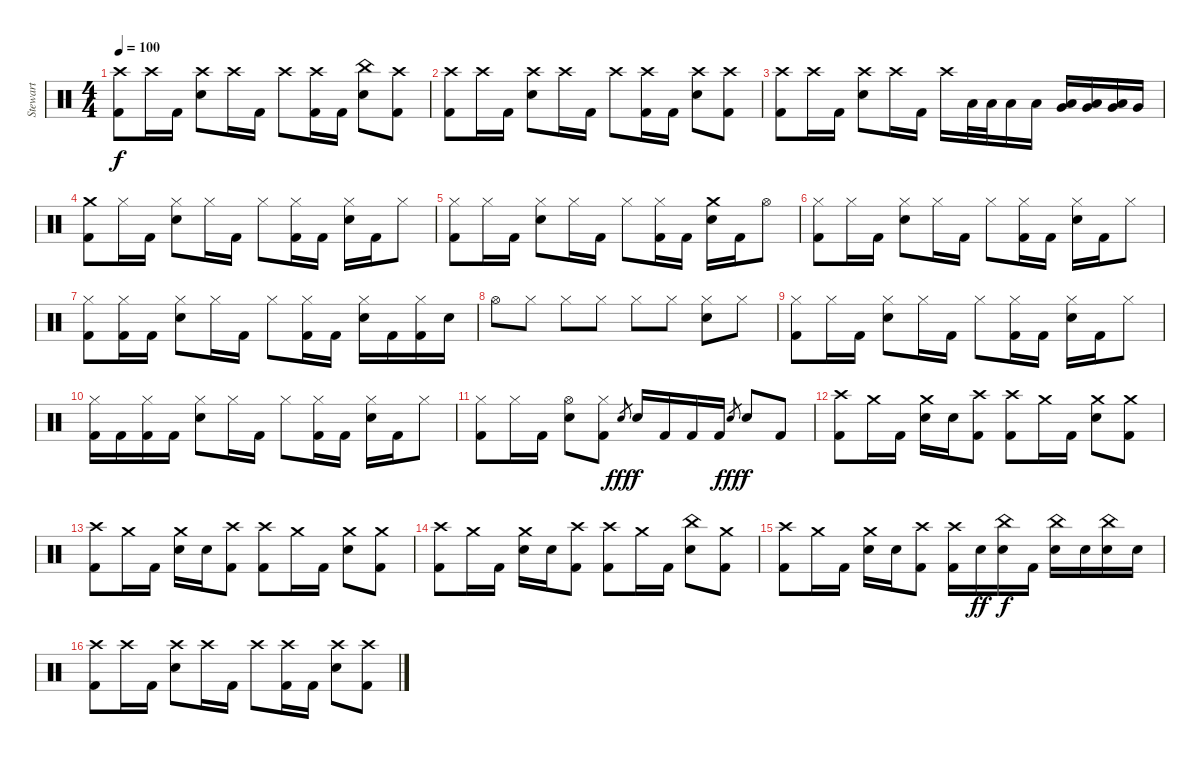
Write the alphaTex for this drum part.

\track ("Stewart" "Stewart") {instrument percussion}
\staff {score}
\articulation defaults
\ts (4 4)
\tempo 100
\clef neutral
\ks c
("Crash high (hit)" "Kick (hit) 2").8{dy f} "Crash high (hit)".16 "Kick (hit) 2".16 ("Crash high (hit)" "Electric Snare (hit)").8 "Crash high (hit)".16 "Kick (hit) 2".16 "Crash high (hit)".8 ("Crash high (hit)" "Kick (hit) 2").16 "Kick (hit) 2".16 ("China (hit)" "Electric Snare (hit)").8 ("Crash high (hit)" "Kick (hit) 2").8 |
("Crash high (hit)" "Kick (hit) 2").8 "Crash high (hit)".16 "Kick (hit) 2".16 ("Crash high (hit)" "Electric Snare (hit)").8 "Crash high (hit)".16 "Kick (hit) 2".16 "Crash high (hit)".8 ("Crash high (hit)" "Kick (hit) 2").16 "Kick (hit) 2".16 ("Crash high (hit)" "Electric Snare (hit)").8 ("Crash high (hit)" "Kick (hit) 2").8 |
("Crash high (hit)" "Kick (hit) 2").8 "Crash high (hit)".16 "Kick (hit) 2".16 ("Crash high (hit)" "Electric Snare (hit)").8 "Crash high (hit)".16 "Kick (hit) 2".16 "Crash high (hit)".16 "Low Tom (hit)".32 "Low Tom (hit)".32 "Low Tom (hit)".16 "Low Tom (hit)".16 ("Low Tom (hit)" "Very Low Tom (hit)").16 ("Low Tom (hit)" "Very Low Tom (hit)").16 ("Low Tom (hit)" "Very Low Tom (hit)").16 "Very Low Tom (hit)".16 |
("Crash medium (hit)" "Kick (hit) 2").8 "Hi-Hat (closed)".16 "Kick (hit) 2".16 ("Hi-Hat (closed)" "Electric Snare (hit)").8 "Hi-Hat (closed)".16 "Kick (hit) 2".16 "Hi-Hat (closed)".8 ("Hi-Hat (closed)" "Kick (hit) 2").16 "Kick (hit) 2".16 ("Hi-Hat (closed)" "Electric Snare (hit)").16 "Kick (hit) 2".16 "Hi-Hat (closed)".8 |
("Hi-Hat (closed)" "Kick (hit) 2").8 "Hi-Hat (closed)".16 "Kick (hit) 2".16 ("Hi-Hat (closed)" "Electric Snare (hit)").8 "Hi-Hat (closed)".16 "Kick (hit) 2".16 "Hi-Hat (closed)".8 ("Hi-Hat (closed)" "Kick (hit) 2").16 "Kick (hit) 2".16 ("Crash medium (hit)" "Electric Snare (hit)").16 "Kick (hit) 2".16 "Hi-Hat (open)".8 |
("Hi-Hat (closed)" "Kick (hit) 2").8 "Hi-Hat (closed)".16 "Kick (hit) 2".16 ("Hi-Hat (closed)" "Electric Snare (hit)").8 "Hi-Hat (closed)".16 "Kick (hit) 2".16 "Hi-Hat (closed)".8 ("Hi-Hat (closed)" "Kick (hit) 2").16 "Kick (hit) 2".16 ("Hi-Hat (closed)" "Electric Snare (hit)").16 "Kick (hit) 2".16 "Hi-Hat (closed)".8 |
("Hi-Hat (closed)" "Kick (hit) 2").8 ("Hi-Hat (closed)" "Kick (hit) 2").16 "Kick (hit) 2".16 ("Hi-Hat (closed)" "Electric Snare (hit)").8 "Hi-Hat (closed)".16 "Kick (hit) 2".16 "Hi-Hat (closed)".8 ("Hi-Hat (closed)" "Kick (hit) 2").16 "Kick (hit) 2".16 ("Hi-Hat (closed)" "Electric Snare (hit)").16 "Kick (hit) 2".16 ("Hi-Hat (closed)" "Kick (hit) 2").16 "Electric Snare (hit)".16 |
"Hi-Hat (open)".8 "Hi-Hat (closed)".8 "Hi-Hat (closed)".8 "Hi-Hat (closed)".8 "Hi-Hat (closed)".8 "Hi-Hat (closed)".8 ("Hi-Hat (closed)" "Electric Snare (hit)").8 "Hi-Hat (closed)".8 |
("Hi-Hat (closed)" "Kick (hit) 2").8 "Hi-Hat (closed)".16 "Kick (hit) 2".16 ("Hi-Hat (closed)" "Electric Snare (hit)").8 "Hi-Hat (closed)".16 "Kick (hit) 2".16 "Hi-Hat (closed)".8 ("Hi-Hat (closed)" "Kick (hit) 2").16 "Kick (hit) 2".16 ("Hi-Hat (closed)" "Electric Snare (hit)").16 "Kick (hit) 2".16 "Hi-Hat (closed)".8 |
("Hi-Hat (closed)" "Kick (hit) 2").16 "Kick (hit) 2".16 ("Hi-Hat (closed)" "Kick (hit) 2").16 "Kick (hit) 2".16 ("Hi-Hat (closed)" "Electric Snare (hit)").8 "Hi-Hat (closed)".16 "Kick (hit) 2".16 "Hi-Hat (closed)".8 ("Hi-Hat (closed)" "Kick (hit) 2").16 "Kick (hit) 2".16 ("Hi-Hat (closed)" "Electric Snare (hit)").16 "Kick (hit) 2".16 "Hi-Hat (closed)".8 |
("Hi-Hat (closed)" "Kick (hit) 2").8 "Hi-Hat (closed)".16 "Kick (hit) 2".16 ("Hi-Hat (open)" "Electric Snare (hit)").8 ("Hi-Hat (closed)" "Kick (hit) 2").8 "Electric Snare (hit)".8{gr dy fff} "Electric Snare (hit)".16{dy f} "Kick (hit) 2".16 "Kick (hit) 2".16 "Kick (hit) 2".16 "Electric Snare (hit)".8{gr dy fff} "Electric Snare (hit)".8{dy f} "Kick (hit) 2".8 |
("Crash high (hit)" "Kick (hit) 2").8 "Crash medium (hit)".16 "Kick (hit) 2".16 ("Crash medium (hit)" "Electric Snare (hit)").16 "Electric Snare (hit)".16 ("Crash high (hit)" "Kick (hit) 2").8 ("Crash high (hit)" "Kick (hit) 2").8 "Crash medium (hit)".16 "Kick (hit) 2".16 ("Crash medium (hit)" "Electric Snare (hit)").8 ("Crash medium (hit)" "Kick (hit) 2").8 |
("Crash high (hit)" "Kick (hit) 2").8 "Crash medium (hit)".16 "Kick (hit) 2".16 ("Crash medium (hit)" "Electric Snare (hit)").16 "Electric Snare (hit)".16 ("Crash high (hit)" "Kick (hit) 2").8 ("Crash high (hit)" "Kick (hit) 2").8 "Crash medium (hit)".16 "Kick (hit) 2".16 ("Crash medium (hit)" "Electric Snare (hit)").8 ("Crash medium (hit)" "Kick (hit) 2").8 |
("Crash high (hit)" "Kick (hit) 2").8 "Crash medium (hit)".16 "Kick (hit) 2".16 ("Crash medium (hit)" "Electric Snare (hit)").16 "Electric Snare (hit)".16 ("Crash high (hit)" "Kick (hit) 2").8 ("Crash high (hit)" "Kick (hit) 2").8 "Crash medium (hit)".16 "Kick (hit) 2".16 ("China (hit)" "Electric Snare (hit)").8 ("Crash medium (hit)" "Kick (hit) 2").8 |
("Crash high (hit)" "Kick (hit) 2").8 "Crash medium (hit)".16 "Kick (hit) 2".16 ("Crash medium (hit)" "Electric Snare (hit)").16 "Electric Snare (hit)".16 ("Crash high (hit)" "Kick (hit) 2").8 ("Crash high (hit)" "Kick (hit) 2").16 "Electric Snare (hit)".16{dy ff} ("China (hit)" "Electric Snare (hit)").16{dy f} "Kick (hit) 2".16 ("China (hit)" "Electric Snare (hit)").16 "Electric Snare (hit)".16 ("China (hit)" "Electric Snare (hit)").16 "Electric Snare (hit)".16 |
("Crash high (hit)" "Kick (hit) 2").8 "Crash high (hit)".16 "Kick (hit) 2".16 ("Crash high (hit)" "Electric Snare (hit)").8 "Crash high (hit)".16 "Kick (hit) 2".16 "Crash high (hit)".8 ("Crash high (hit)" "Kick (hit) 2").16 "Kick (hit) 2".16 ("Crash high (hit)" "Electric Snare (hit)").8 ("Crash high (hit)" "Kick (hit) 2").8
